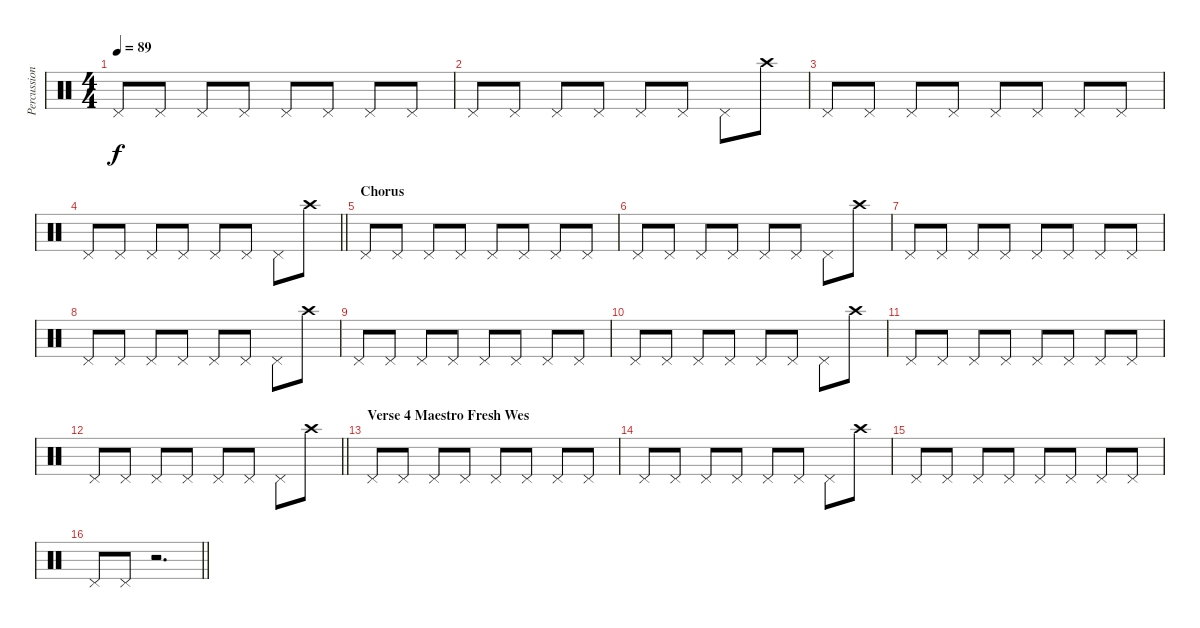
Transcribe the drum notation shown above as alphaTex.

\track ("Percussion" "Percussion") {instrument percussion}
\staff {score}
\articulation defaults
\ts (4 4)
\tempo 89
\clef neutral
\ks c "Pedal Hi-Hat (hit)".8{dy f} "Pedal Hi-Hat (hit)".8 "Pedal Hi-Hat (hit)".8 "Pedal Hi-Hat (hit)".8 "Pedal Hi-Hat (hit)".8 "Pedal Hi-Hat (hit)".8 "Pedal Hi-Hat (hit)".8 "Pedal Hi-Hat (hit)".8
|
"Pedal Hi-Hat (hit)".8 "Pedal Hi-Hat (hit)".8 "Pedal Hi-Hat (hit)".8 "Pedal Hi-Hat (hit)".8 "Pedal Hi-Hat (hit)".8 "Pedal Hi-Hat (hit)".8 "Pedal Hi-Hat (hit)".8 "Crash high (hit)".8 |
"Pedal Hi-Hat (hit)".8 "Pedal Hi-Hat (hit)".8 "Pedal Hi-Hat (hit)".8 "Pedal Hi-Hat (hit)".8 "Pedal Hi-Hat (hit)".8 "Pedal Hi-Hat (hit)".8 "Pedal Hi-Hat (hit)".8 "Pedal Hi-Hat (hit)".8 |
\barLineRight lightlight "Pedal Hi-Hat (hit)".8 "Pedal Hi-Hat (hit)".8 "Pedal Hi-Hat (hit)".8 "Pedal Hi-Hat (hit)".8 "Pedal Hi-Hat (hit)".8 "Pedal Hi-Hat (hit)".8 "Pedal Hi-Hat (hit)".8 "Crash high (hit)".8
|
\section ("" "Chorus")
"Pedal Hi-Hat (hit)".8 "Pedal Hi-Hat (hit)".8 "Pedal Hi-Hat (hit)".8 "Pedal Hi-Hat (hit)".8 "Pedal Hi-Hat (hit)".8 "Pedal Hi-Hat (hit)".8 "Pedal Hi-Hat (hit)".8 "Pedal Hi-Hat (hit)".8 |
"Pedal Hi-Hat (hit)".8 "Pedal Hi-Hat (hit)".8 "Pedal Hi-Hat (hit)".8 "Pedal Hi-Hat (hit)".8 "Pedal Hi-Hat (hit)".8 "Pedal Hi-Hat (hit)".8 "Pedal Hi-Hat (hit)".8 "Crash high (hit)".8 |
"Pedal Hi-Hat (hit)".8 "Pedal Hi-Hat (hit)".8 "Pedal Hi-Hat (hit)".8 "Pedal Hi-Hat (hit)".8 "Pedal Hi-Hat (hit)".8 "Pedal Hi-Hat (hit)".8 "Pedal Hi-Hat (hit)".8 "Pedal Hi-Hat (hit)".8 |
"Pedal Hi-Hat (hit)".8 "Pedal Hi-Hat (hit)".8 "Pedal Hi-Hat (hit)".8 "Pedal Hi-Hat (hit)".8 "Pedal Hi-Hat (hit)".8 "Pedal Hi-Hat (hit)".8 "Pedal Hi-Hat (hit)".8 "Crash high (hit)".8 |
"Pedal Hi-Hat (hit)".8 "Pedal Hi-Hat (hit)".8 "Pedal Hi-Hat (hit)".8 "Pedal Hi-Hat (hit)".8 "Pedal Hi-Hat (hit)".8 "Pedal Hi-Hat (hit)".8 "Pedal Hi-Hat (hit)".8 "Pedal Hi-Hat (hit)".8 |
"Pedal Hi-Hat (hit)".8 "Pedal Hi-Hat (hit)".8 "Pedal Hi-Hat (hit)".8 "Pedal Hi-Hat (hit)".8 "Pedal Hi-Hat (hit)".8 "Pedal Hi-Hat (hit)".8 "Pedal Hi-Hat (hit)".8 "Crash high (hit)".8 |
"Pedal Hi-Hat (hit)".8 "Pedal Hi-Hat (hit)".8 "Pedal Hi-Hat (hit)".8 "Pedal Hi-Hat (hit)".8 "Pedal Hi-Hat (hit)".8 "Pedal Hi-Hat (hit)".8 "Pedal Hi-Hat (hit)".8 "Pedal Hi-Hat (hit)".8 |
\barLineRight lightlight "Pedal Hi-Hat (hit)".8 "Pedal Hi-Hat (hit)".8 "Pedal Hi-Hat (hit)".8 "Pedal Hi-Hat (hit)".8 "Pedal Hi-Hat (hit)".8 "Pedal Hi-Hat (hit)".8 "Pedal Hi-Hat (hit)".8 "Crash high (hit)".8
|
\section ("" "Verse 4 Maestro Fresh Wes")
"Pedal Hi-Hat (hit)".8 "Pedal Hi-Hat (hit)".8 "Pedal Hi-Hat (hit)".8 "Pedal Hi-Hat (hit)".8 "Pedal Hi-Hat (hit)".8 "Pedal Hi-Hat (hit)".8 "Pedal Hi-Hat (hit)".8 "Pedal Hi-Hat (hit)".8 |
"Pedal Hi-Hat (hit)".8 "Pedal Hi-Hat (hit)".8 "Pedal Hi-Hat (hit)".8 "Pedal Hi-Hat (hit)".8 "Pedal Hi-Hat (hit)".8 "Pedal Hi-Hat (hit)".8 "Pedal Hi-Hat (hit)".8 "Crash high (hit)".8 |
"Pedal Hi-Hat (hit)".8 "Pedal Hi-Hat (hit)".8 "Pedal Hi-Hat (hit)".8 "Pedal Hi-Hat (hit)".8 "Pedal Hi-Hat (hit)".8 "Pedal Hi-Hat (hit)".8 "Pedal Hi-Hat (hit)".8 "Pedal Hi-Hat (hit)".8 |
\barLineRight lightlight "Pedal Hi-Hat (hit)".8 "Pedal Hi-Hat (hit)".8
r.2{d}
